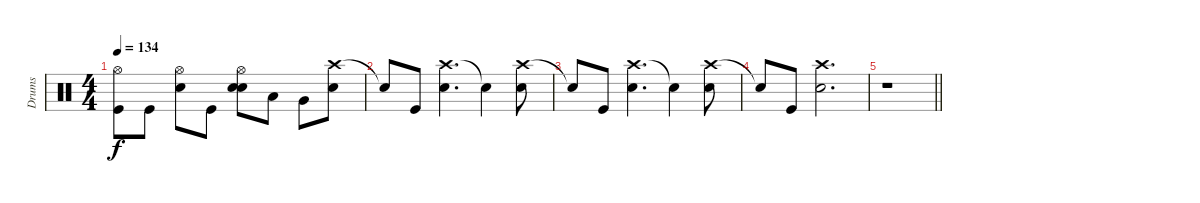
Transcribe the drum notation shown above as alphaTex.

\track ("Drums" "Drums") {instrument percussion}
\staff {score}
\articulation defaults
\ts (4 4)
\tempo 134
\clef neutral
\ks c
("Hi-Hat (open)" "Kick (hit)").8{dy f} "Kick (hit)".8 ("Hi-Hat (open)" "Snare (hit) 2").8 "Kick (hit)".8 ("Hi-Hat (open)" "Electric Snare (hit)" "Snare (hit) 2").8 "Low Tom (hit)".8 "Very Low Tom (hit)".8 ("Crash high (hit)" "Snare (hit) 2").8 |
"Snare (hit)"{t}.8 "Kick (hit)".8 ("Crash high (hit)" "Snare (hit) 2").4{d} "Snare (hit)"{t}.4 ("Crash high (hit)" "Snare (hit) 2").8 |
"Snare (hit)"{t}.8 "Kick (hit)".8 ("Crash high (hit)" "Snare (hit) 2").4{d} "Snare (hit)"{t}.4 ("Crash high (hit)" "Snare (hit) 2").8 |
"Snare (hit)"{t}.8 "Kick (hit)".8 ("Crash high (hit)" "Snare (hit) 2").2{d} |
\barLineRight lightlight
r.1
